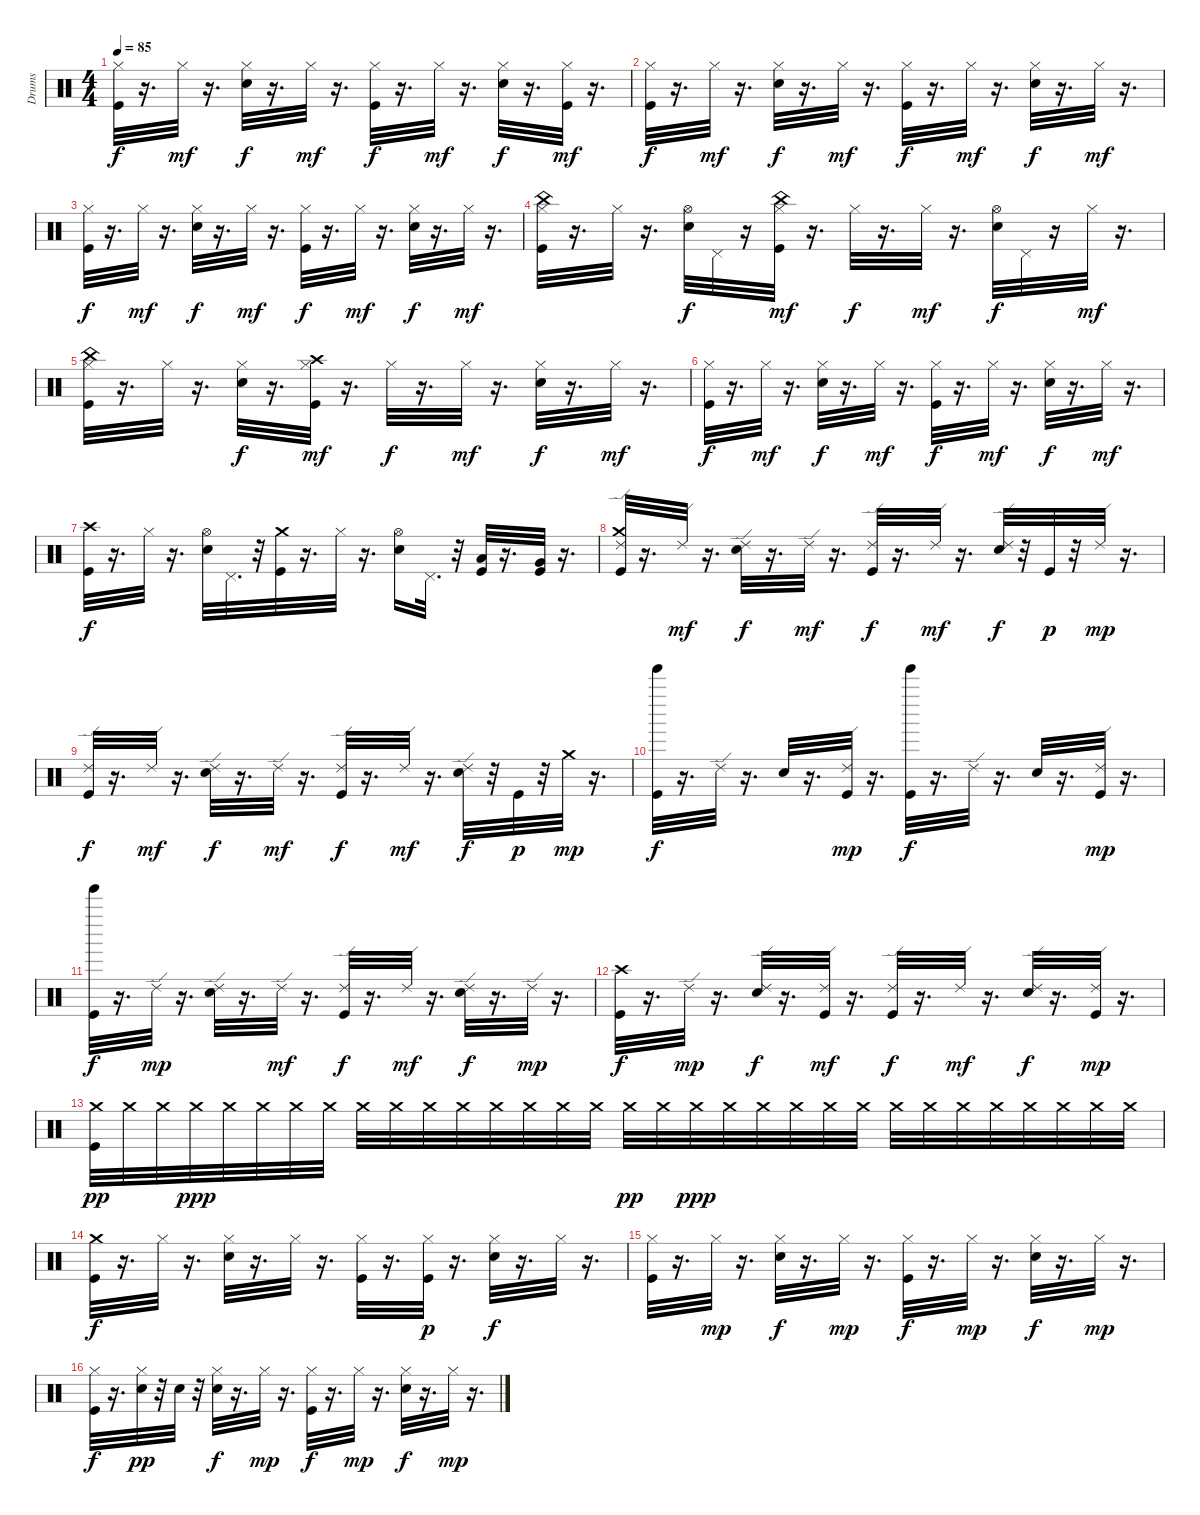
\track ("Drums" "Drums") {instrument percussion}
\staff {score}
\articulation defaults
\ts (4 4)
\tempo 85
\clef neutral
\ks c
("Kick (hit)" "Hi-Hat (closed)").32{dy f} r.16{d} "Hi-Hat (closed)".32{dy mf} r.16{d} ("Hi-Hat (closed)" "Snare (hit) 2").32{dy f} r.16{d} "Hi-Hat (closed)".32{dy mf} r.16{d} ("Hi-Hat (closed)" "Kick (hit)").32{dy f} r.16{d} "Hi-Hat (closed)".32{dy mf} r.16{d} ("Hi-Hat (closed)" "Snare (hit) 2").32{dy f} r.16{d} ("Kick (hit)" "Hi-Hat (closed)").32{dy mf} r.16{d} |
("Kick (hit)" "Hi-Hat (closed)").32{dy f} r.16{d} "Hi-Hat (closed)".32{dy mf} r.16{d} ("Hi-Hat (closed)" "Snare (hit) 2").32{dy f} r.16{d} "Hi-Hat (closed)".32{dy mf} r.16{d} ("Hi-Hat (closed)" "Kick (hit)").32{dy f} r.16{d} "Hi-Hat (closed)".32{dy mf} r.16{d} ("Hi-Hat (closed)" "Snare (hit) 2").32{dy f} r.16{d} "Hi-Hat (closed)".32{dy mf} r.16{d} |
("Kick (hit)" "Hi-Hat (closed)").32{dy f} r.16{d} "Hi-Hat (closed)".32{dy mf} r.16{d} ("Hi-Hat (closed)" "Snare (hit) 2").32{dy f} r.16{d} "Hi-Hat (closed)".32{dy mf} r.16{d} ("Hi-Hat (closed)" "Kick (hit)").32{dy f} r.16{d} "Hi-Hat (closed)".32{dy mf} r.16{d} ("Hi-Hat (closed)" "Snare (hit) 2").32{dy f} r.16{d} "Hi-Hat (closed)".32{dy mf} r.16{d} |
("China (hit)" "Kick (hit)" "Hi-Hat (closed)").32 r.16{d} "Hi-Hat (closed)".32 r.16{d} ("Hi-Hat (open)" "Snare (hit) 2").32{dy f} "Pedal Hi-Hat (hit)".32 r.16 ("Kick (hit)" "China (hit)" "Hi-Hat (closed)").32{dy mf} r.16{d} "Hi-Hat (closed)".32{dy f} r.16{d} "Hi-Hat (closed)".32{dy mf} r.16{d} ("Hi-Hat (open)" "Snare (hit) 2").32{dy f} "Pedal Hi-Hat (hit)".32 r.16 "Hi-Hat (closed)".32{dy mf} r.16{d} |
("China (hit)" "Kick (hit)" "Hi-Hat (closed)").32 r.16{d} "Hi-Hat (closed)".32 r.16{d} ("Hi-Hat (closed)" "Snare (hit) 2").32{dy f} r.16{d} ("Kick (hit)" "Crash high (hit)" "Hi-Hat (closed)").32{dy mf} r.16{d} "Hi-Hat (closed)".32{dy f} r.16{d} "Hi-Hat (closed)".32{dy mf} r.16{d} ("Hi-Hat (closed)" "Snare (hit) 2").32{dy f} r.16{d} "Hi-Hat (closed)".32{dy mf} r.16{d} |
("Kick (hit)" "Hi-Hat (closed)").32{dy f} r.16{d} "Hi-Hat (closed)".32{dy mf} r.16{d} ("Hi-Hat (closed)" "Snare (hit) 2").32{dy f} r.16{d} "Hi-Hat (closed)".32{dy mf} r.16{d} ("Hi-Hat (closed)" "Kick (hit)").32{dy f} r.16{d} "Hi-Hat (closed)".32{dy mf} r.16{d} ("Hi-Hat (closed)" "Snare (hit) 2").32{dy f} r.16{d} "Hi-Hat (closed)".32{dy mf} r.16{d} |
("Crash high (hit)" "Kick (hit)").32{dy f} r.16{d} "Hi-Hat (closed)".32 r.16{d} ("Hi-Hat (open)" "Snare (hit) 2").32 "Pedal Hi-Hat (hit)".32{d} r.32 ("Crash medium (hit)" "Kick (hit)").32 r.16{d} "Hi-Hat (closed)".32 r.16{d} ("Snare (hit) 2" "Hi-Hat (open)").16 "Pedal Hi-Hat (hit)".32{d} r.32 ("Low Tom (hit)" "Kick (hit)").32 r.16{d} ("Very Low Tom (hit)" "Kick (hit)").32 r.16{d} |
("Crash medium (hit)" "Ride (edge) 2" "Kick (hit)").32 r.16{d} "Ride (edge) 2".32{dy mf} r.16{d} ("Ride (edge) 2" "Snare (hit) 2").32{dy f} r.16{d} "Ride (edge) 2".32{dy mf} r.16{d} ("Ride (edge) 2" "Kick (hit)").32{dy f} r.16{d} "Ride (edge) 2".32{dy mf} r.16{d} ("Ride (edge) 2" "Snare (hit) 2").32{dy f} r.32 "Kick (hit)".32{dy p} r.32 "Ride (edge) 2".32{dy mp} r.16{d} |
("Ride (edge) 2" "Kick (hit)").32{dy f} r.16{d} "Ride (edge) 2".32{dy mf} r.16{d} ("Ride (edge) 2" "Snare (hit) 2").32{dy f} r.16{d} "Ride (edge) 2".32{dy mf} r.16{d} ("Ride (edge) 2" "Kick (hit)").32{dy f} r.16{d} "Ride (edge) 2".32{dy mf} r.16{d} ("Ride (edge) 2" "Snare (hit) 2").32{dy f} r.32 "Kick (hit)".32{dy p} r.32 "Crash medium (hit)".32{dy mp} r.16{d} |
("Kick (hit)" "Tinkle Bell (hit)").32{dy f} r.16{d} "Ride (edge) 2".32 r.16{d} "Snare (hit) 2".32 r.16{d} ("Ride (edge) 2" "Kick (hit)").32{dy mp} r.16{d} ("Tinkle Bell (hit)" "Kick (hit)").32{dy f} r.16{d} "Ride (edge) 2".32 r.16{d} "Snare (hit) 2".32 r.16{d} ("Ride (edge) 2" "Kick (hit)").32{dy mp} r.16{d} |
("Tinkle Bell (hit)" "Kick (hit)").32{dy f} r.16{d} "Ride (edge) 2".32{dy mp} r.16{d} ("Ride (edge) 2" "Snare (hit) 2").32 r.16{d} "Ride (edge) 2".32{dy mf} r.16{d} ("Kick (hit)" "Ride (edge) 2").32{dy f} r.16{d} "Ride (edge) 2".32{dy mf} r.16{d} ("Snare (hit) 2" "Ride (edge) 2").32{dy f} r.16{d} "Ride (edge) 2".32{dy mp} r.16{d} |
("Crash high (hit)" "Kick (hit)").32{dy f} r.16{d} "Ride (edge) 2".32{dy mp} r.16{d} ("Snare (hit) 2" "Ride (edge) 2").32{dy f} r.16{d} ("Kick (hit)" "Ride (edge) 2").32{dy mf} r.16{d} ("Kick (hit)" "Ride (edge) 2").32{dy f} r.16{d} "Ride (edge) 2".32{dy mf} r.16{d} ("Snare (hit) 2" "Ride (edge) 2").32{dy f} r.16{d} ("Kick (hit)" "Ride (edge) 2").32{dy mp} r.16{d} |
("Kick (hit)" "Crash medium (hit)").32{dy pp} "Crash medium (hit)".32 "Crash medium (hit)".32 "Crash medium (hit)".32{dy ppp} "Crash medium (hit)".32 "Crash medium (hit)".32 "Crash medium (hit)".32 "Crash medium (hit)".32 "Crash medium (hit)".32 "Crash medium (hit)".32 "Crash medium (hit)".32 "Crash medium (hit)".32 "Crash medium (hit)".32 "Crash medium (hit)".32 "Crash medium (hit)".32 "Crash medium (hit)".32 "Crash medium (hit)".32{dy pp} "Crash medium (hit)".32 "Crash medium (hit)".32{dy ppp} "Crash medium (hit)".32 "Crash medium (hit)".32 "Crash medium (hit)".32 "Crash medium (hit)".32 "Crash medium (hit)".32 "Crash medium (hit)".32 "Crash medium (hit)".32 "Crash medium (hit)".32 "Crash medium (hit)".32 "Crash medium (hit)".32 "Crash medium (hit)".32 "Crash medium (hit)".32 "Crash medium (hit)".32 |
("Kick (hit)" "Crash medium (hit)").32{dy f} r.16{d} "Hi-Hat (closed)".32 r.16{d} ("Hi-Hat (closed)" "Snare (hit) 2").32 r.16{d} "Hi-Hat (closed)".32 r.16{d} ("Hi-Hat (closed)" "Kick (hit)").32 r.16{d} ("Hi-Hat (closed)" "Kick (hit)").32{dy p} r.16{d} ("Hi-Hat (closed)" "Snare (hit) 2").32{dy f} r.16{d} "Hi-Hat (closed)".32 r.16{d} |
("Hi-Hat (closed)" "Kick (hit)").32 r.16{d} "Hi-Hat (closed)".32{dy mp} r.16{d} ("Hi-Hat (closed)" "Snare (hit) 2").32{dy f} r.16{d} "Hi-Hat (closed)".32{dy mp} r.16{d} ("Hi-Hat (closed)" "Kick (hit)").32{dy f} r.16{d} "Hi-Hat (closed)".32{dy mp} r.16{d} ("Hi-Hat (closed)" "Snare (hit) 2").32{dy f} r.16{d} "Hi-Hat (closed)".32{dy mp} r.16{d} |
("Hi-Hat (closed)" "Kick (hit)").32{dy f} r.16{d} ("Hi-Hat (closed)" "Snare (hit) 2").32{dy pp} r.32 "Snare (hit) 2".32 r.32 ("Hi-Hat (closed)" "Snare (hit) 2").32{dy f} r.16{d} "Hi-Hat (closed)".32{dy mp} r.16{d} ("Hi-Hat (closed)" "Kick (hit)").32{dy f} r.16{d} "Hi-Hat (closed)".32{dy mp} r.16{d} ("Hi-Hat (closed)" "Snare (hit) 2").32{dy f} r.16{d} "Hi-Hat (closed)".32{dy mp} r.16{d}
